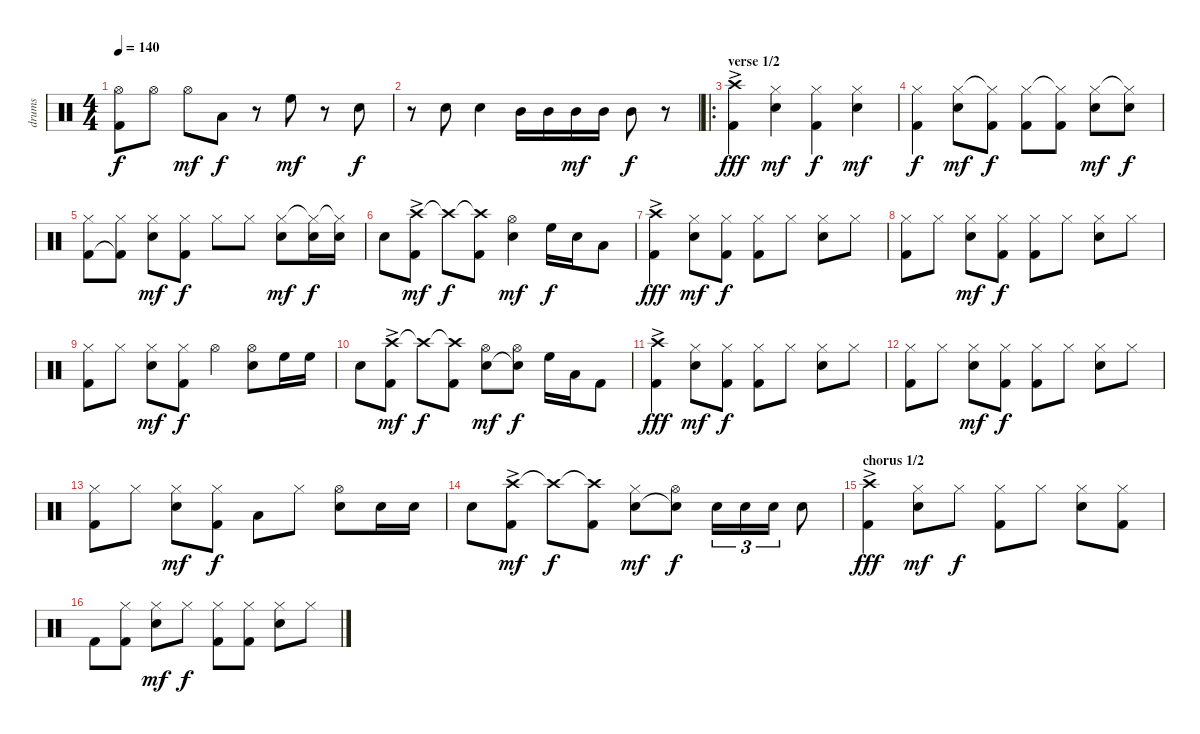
\track ("drums" "drums") {instrument percussion}
\staff {score}
\articulation defaults
\ts (4 4)
\tempo 140
\clef neutral
\ks c
("Kick (hit) 2" "Hi-Hat (open)").8{dy f} "Hi-Hat (open)".8 "Hi-Hat (open)".8{dy mf} "Low Tom (hit)".8{dy f} r.8 "High Floor Tom (hit)".8{dy mf} r.8 "Snare (hit) 2".8{dy f} |
r.8 "Snare (hit) 2".8 "Snare (hit) 2".4 "Mid Tom (hit)".16 "Mid Tom (hit)".16 "Mid Tom (hit)".16{dy mf} "Mid Tom (hit)".16 "Mid Tom (hit)".8{dy f} r.8 |
\ro
\section ("" "verse 1/2")
("Kick (hit) 2" "Crash high (hit)"{ac}).4{dy fff} ("Hi-Hat (closed)" "Snare (hit) 2").4{dy mf} ("Hi-Hat (closed)" "Kick (hit) 2").4{dy f} ("Hi-Hat (closed)" "Snare (hit) 2").4{dy mf} |
("Hi-Hat (closed)" "Kick (hit) 2").4{dy f} ("Hi-Hat (closed)" "Snare (hit) 2").8{dy mf} ("Hi-Hat (closed)"{t} "Kick (hit) 2").8{dy f} ("Hi-Hat (closed)" "Kick (hit) 2").8 ("Hi-Hat (closed)"{t} "Kick (hit) 2").8 ("Hi-Hat (closed)" "Snare (hit) 2").8{dy mf} ("Hi-Hat (closed)"{t} "Snare (hit) 2").8{dy f} |
("Hi-Hat (closed)" "Kick (hit) 2").8 ("Hi-Hat (closed)" "Kick (hit) 2"{t}).8 ("Hi-Hat (closed)" "Snare (hit) 2").8{dy mf} ("Hi-Hat (closed)" "Kick (hit) 2").8{dy f} "Hi-Hat (closed)".8 "Hi-Hat (closed)".8 ("Hi-Hat (closed)" "Snare (hit) 2").8{dy mf} ("Hi-Hat (closed)"{t} "Snare (hit) 2").16{dy f} ("Hi-Hat (closed)"{t} "Snare (hit) 2").16 |
"Snare (hit) 2".8 ("Crash high (hit)"{ac} "Kick (hit) 2").8{dy mf} "Crash high (hit)"{t}.8{dy f} ("Crash high (hit)"{t} "Kick (hit) 2").8 ("Hi-Hat (open)" "Snare (hit) 2").4{dy mf} "High Floor Tom (hit)".16{dy f} "Snare (hit) 2".16 "Low Tom (hit)".8 |
("Kick (hit) 2" "Crash high (hit)"{ac}).4{dy fff} ("Hi-Hat (closed)" "Snare (hit) 2").8{dy mf} ("Hi-Hat (closed)" "Kick (hit) 2").8{dy f} ("Hi-Hat (closed)" "Kick (hit) 2").8 "Hi-Hat (closed)".8 ("Hi-Hat (closed)" "Snare (hit) 2").8 "Hi-Hat (closed)".8 |
("Kick (hit) 2" "Hi-Hat (closed)").8 "Hi-Hat (closed)".8 ("Hi-Hat (closed)" "Snare (hit) 2").8{dy mf} ("Hi-Hat (closed)" "Kick (hit) 2").8{dy f} ("Hi-Hat (closed)" "Kick (hit) 2").8 "Hi-Hat (closed)".8 ("Hi-Hat (closed)" "Snare (hit) 2").8 "Hi-Hat (closed)".8 |
("Kick (hit) 2" "Hi-Hat (closed)").8 "Hi-Hat (closed)".8 ("Hi-Hat (closed)" "Snare (hit) 2").8{dy mf} ("Hi-Hat (closed)" "Kick (hit) 2").8{dy f} "Hi-Hat (open)".4 ("Hi-Hat (open)" "Snare (hit) 2").8 "High Floor Tom (hit)".16 "High Floor Tom (hit)".16 |
"Snare (hit) 2".8 ("Crash high (hit)"{ac} "Kick (hit) 2").8{dy mf} "Crash high (hit)"{t}.8{dy f} ("Crash high (hit)"{t} "Kick (hit) 2").8 ("Hi-Hat (open)" "Snare (hit) 2").8{dy mf} ("Hi-Hat (open)" "Snare (hit) 2"{t}).8{dy f} "High Floor Tom (hit)".16 "Low Tom (hit)".16 "Kick (hit) 2".8 |
("Kick (hit) 2" "Crash high (hit)"{ac}).4{dy fff} ("Hi-Hat (closed)" "Snare (hit) 2").8{dy mf} ("Hi-Hat (closed)" "Kick (hit) 2").8{dy f} ("Hi-Hat (closed)" "Kick (hit) 2").8 "Hi-Hat (closed)".8 ("Hi-Hat (closed)" "Snare (hit) 2").8 "Hi-Hat (closed)".8 |
("Kick (hit) 2" "Hi-Hat (closed)").8 "Hi-Hat (closed)".8 ("Hi-Hat (closed)" "Snare (hit) 2").8{dy mf} ("Hi-Hat (closed)" "Kick (hit) 2").8{dy f} ("Hi-Hat (closed)" "Kick (hit) 2").8 "Hi-Hat (closed)".8 ("Hi-Hat (closed)" "Snare (hit) 2").8 "Hi-Hat (closed)".8 |
("Kick (hit) 2" "Hi-Hat (closed)").8 "Hi-Hat (closed)".8 ("Hi-Hat (closed)" "Snare (hit) 2").8{dy mf} ("Hi-Hat (closed)" "Kick (hit) 2").8{dy f} "Low Floor Tom (hit)".8 "Hi-Hat (closed)".8 ("Hi-Hat (open)" "Snare (hit) 2").8 "Snare (hit) 2".16 "Snare (hit) 2".16 |
"Snare (hit) 2".8 ("Crash high (hit)"{ac} "Kick (hit) 2").8{dy mf} "Crash high (hit)"{t}.8{dy f} ("Crash high (hit)"{t} "Kick (hit) 2").8 ("Hi-Hat (closed)" "Snare (hit) 2").8{dy mf} ("Hi-Hat (open)" "Snare (hit) 2"{t}).8{dy f} "Snare (hit) 2".16{tu (3 2)} "Snare (hit) 2".16{tu (3 2)} "Snare (hit) 2".16{tu (3 2)} "Snare (hit) 2".8 |
\section ("" "chorus 1/2")
("Kick (hit) 2" "Crash high (hit)"{ac}).4{dy fff} ("Hi-Hat (closed)" "Snare (hit) 2").8{dy mf} "Hi-Hat (closed)".8{dy f} ("Hi-Hat (closed)" "Kick (hit) 2").8 "Hi-Hat (closed)".8 ("Hi-Hat (closed)" "Snare (hit) 2").8 ("Hi-Hat (closed)" "Kick (hit) 2").8 |
"Kick (hit) 2".8 ("Hi-Hat (closed)" "Kick (hit) 2").8 ("Hi-Hat (closed)" "Snare (hit) 2").8{dy mf} "Hi-Hat (closed)".8{dy f} ("Hi-Hat (closed)" "Kick (hit) 2").8 ("Hi-Hat (closed)" "Kick (hit) 2").8 ("Hi-Hat (closed)" "Snare (hit) 2").8 "Hi-Hat (closed)".8
